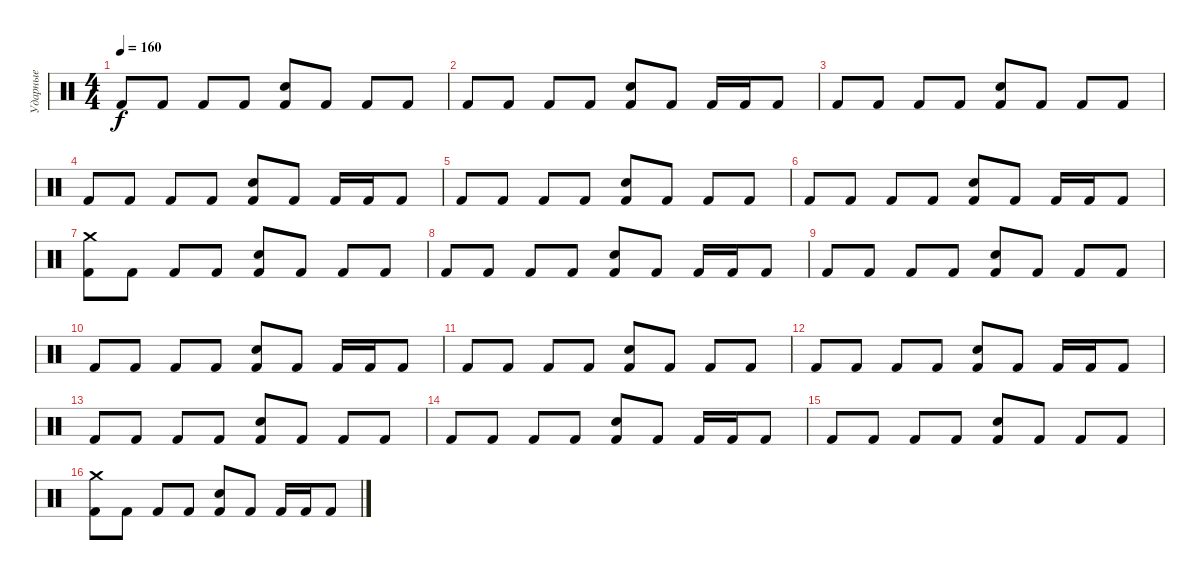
\track ("Ударные" "Ударные") {instrument percussion}
\staff {score}
\articulation defaults
\ts (4 4)
\tempo 160
\clef neutral
\ks c "Kick (hit) 2".8{dy f} "Kick (hit) 2".8 "Kick (hit) 2".8 "Kick (hit) 2".8
("Snare (hit) 2" "Kick (hit) 2").8 "Kick (hit) 2".8 "Kick (hit) 2".8 "Kick (hit) 2".8 |
"Kick (hit) 2".8 "Kick (hit) 2".8 "Kick (hit) 2".8 "Kick (hit) 2".8 ("Snare (hit) 2" "Kick (hit) 2").8 "Kick (hit) 2".8 "Kick (hit) 2".16 "Kick (hit) 2".16 "Kick (hit) 2".8 |
"Kick (hit) 2".8 "Kick (hit) 2".8 "Kick (hit) 2".8 "Kick (hit) 2".8 ("Snare (hit) 2" "Kick (hit) 2").8 "Kick (hit) 2".8 "Kick (hit) 2".8 "Kick (hit) 2".8 |
"Kick (hit) 2".8 "Kick (hit) 2".8 "Kick (hit) 2".8 "Kick (hit) 2".8 ("Snare (hit) 2" "Kick (hit) 2").8 "Kick (hit) 2".8 "Kick (hit) 2".16 "Kick (hit) 2".16 "Kick (hit) 2".8 |
"Kick (hit) 2".8 "Kick (hit) 2".8 "Kick (hit) 2".8 "Kick (hit) 2".8 ("Snare (hit) 2" "Kick (hit) 2").8 "Kick (hit) 2".8 "Kick (hit) 2".8 "Kick (hit) 2".8 |
"Kick (hit) 2".8 "Kick (hit) 2".8 "Kick (hit) 2".8 "Kick (hit) 2".8 ("Snare (hit) 2" "Kick (hit) 2").8 "Kick (hit) 2".8 "Kick (hit) 2".16 "Kick (hit) 2".16 "Kick (hit) 2".8 |
("Crash medium (hit)" "Kick (hit) 2").8 "Kick (hit) 2".8 "Kick (hit) 2".8 "Kick (hit) 2".8 ("Snare (hit) 2" "Kick (hit) 2").8 "Kick (hit) 2".8 "Kick (hit) 2".8 "Kick (hit) 2".8 |
"Kick (hit) 2".8 "Kick (hit) 2".8 "Kick (hit) 2".8 "Kick (hit) 2".8 ("Snare (hit) 2" "Kick (hit) 2").8 "Kick (hit) 2".8 "Kick (hit) 2".16 "Kick (hit) 2".16 "Kick (hit) 2".8 |
"Kick (hit) 2".8 "Kick (hit) 2".8 "Kick (hit) 2".8 "Kick (hit) 2".8 ("Snare (hit) 2" "Kick (hit) 2").8 "Kick (hit) 2".8 "Kick (hit) 2".8 "Kick (hit) 2".8 |
"Kick (hit) 2".8 "Kick (hit) 2".8 "Kick (hit) 2".8 "Kick (hit) 2".8 ("Snare (hit) 2" "Kick (hit) 2").8 "Kick (hit) 2".8 "Kick (hit) 2".16 "Kick (hit) 2".16 "Kick (hit) 2".8 |
"Kick (hit) 2".8 "Kick (hit) 2".8 "Kick (hit) 2".8 "Kick (hit) 2".8 ("Snare (hit) 2" "Kick (hit) 2").8 "Kick (hit) 2".8 "Kick (hit) 2".8 "Kick (hit) 2".8 |
"Kick (hit) 2".8 "Kick (hit) 2".8 "Kick (hit) 2".8 "Kick (hit) 2".8 ("Snare (hit) 2" "Kick (hit) 2").8 "Kick (hit) 2".8 "Kick (hit) 2".16 "Kick (hit) 2".16 "Kick (hit) 2".8 |
"Kick (hit) 2".8 "Kick (hit) 2".8 "Kick (hit) 2".8 "Kick (hit) 2".8 ("Snare (hit) 2" "Kick (hit) 2").8 "Kick (hit) 2".8 "Kick (hit) 2".8 "Kick (hit) 2".8 |
"Kick (hit) 2".8 "Kick (hit) 2".8 "Kick (hit) 2".8 "Kick (hit) 2".8 ("Snare (hit) 2" "Kick (hit) 2").8 "Kick (hit) 2".8 "Kick (hit) 2".16 "Kick (hit) 2".16 "Kick (hit) 2".8 |
"Kick (hit) 2".8 "Kick (hit) 2".8 "Kick (hit) 2".8 "Kick (hit) 2".8 ("Snare (hit) 2" "Kick (hit) 2").8 "Kick (hit) 2".8 "Kick (hit) 2".8 "Kick (hit) 2".8 |
("Crash medium (hit)" "Kick (hit) 2").8 "Kick (hit) 2".8 "Kick (hit) 2".8 "Kick (hit) 2".8 ("Snare (hit) 2" "Kick (hit) 2").8 "Kick (hit) 2".8 "Kick (hit) 2".16 "Kick (hit) 2".16 "Kick (hit) 2".8
